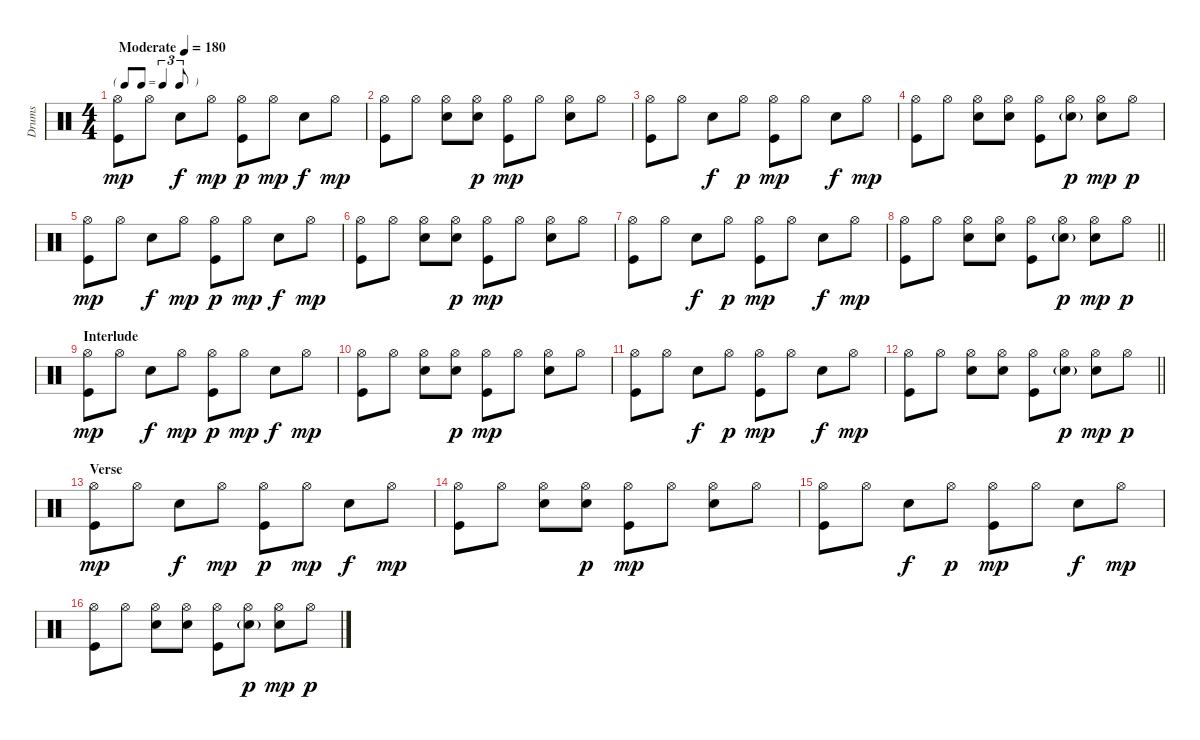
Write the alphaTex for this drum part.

\track ("Drums" "Drums") {instrument percussion}
\staff {score}
\articulation defaults
\ts (4 4)
\tf triplet8th
\tempo (180 "Moderate")
\clef neutral
\ks c
("Hi-Hat (open)" "Kick (hit)").8{dy mp} "Hi-Hat (open)".8 "Electric Snare (hit)".8{dy f} "Hi-Hat (open)".8{dy mp} ("Hi-Hat (open)" "Kick (hit)").8{dy p} "Hi-Hat (open)".8{dy mp} "Electric Snare (hit)".8{dy f} "Hi-Hat (open)".8{dy mp} |
("Hi-Hat (open)" "Kick (hit)").8 "Hi-Hat (open)".8 ("Hi-Hat (open)" "Electric Snare (hit)").8 ("Electric Snare (hit)" "Hi-Hat (open)").8{dy p} ("Hi-Hat (open)" "Kick (hit)").8{dy mp} "Hi-Hat (open)".8 ("Hi-Hat (open)" "Electric Snare (hit)").8 "Hi-Hat (open)".8 |
("Hi-Hat (open)" "Kick (hit)").8 "Hi-Hat (open)".8 "Electric Snare (hit)".8{dy f} "Hi-Hat (open)".8{dy p} ("Hi-Hat (open)" "Kick (hit)").8{dy mp} "Hi-Hat (open)".8 "Electric Snare (hit)".8{dy f} "Hi-Hat (open)".8{dy mp} |
("Hi-Hat (open)" "Kick (hit)").8 "Hi-Hat (open)".8 ("Hi-Hat (open)" "Electric Snare (hit)").8 ("Electric Snare (hit)" "Hi-Hat (open)").8 ("Hi-Hat (open)" "Kick (hit)").8 ("Electric Snare (hit)"{g} "Hi-Hat (open)").8{dy p} ("Hi-Hat (open)" "Electric Snare (hit)").8{dy mp} "Hi-Hat (open)".8{dy p} |
("Hi-Hat (open)" "Kick (hit)").8{dy mp} "Hi-Hat (open)".8 "Electric Snare (hit)".8{dy f} "Hi-Hat (open)".8{dy mp} ("Hi-Hat (open)" "Kick (hit)").8{dy p} "Hi-Hat (open)".8{dy mp} "Electric Snare (hit)".8{dy f} "Hi-Hat (open)".8{dy mp} |
("Hi-Hat (open)" "Kick (hit)").8 "Hi-Hat (open)".8 ("Hi-Hat (open)" "Electric Snare (hit)").8 ("Electric Snare (hit)" "Hi-Hat (open)").8{dy p} ("Hi-Hat (open)" "Kick (hit)").8{dy mp} "Hi-Hat (open)".8 ("Hi-Hat (open)" "Electric Snare (hit)").8 "Hi-Hat (open)".8 |
("Hi-Hat (open)" "Kick (hit)").8 "Hi-Hat (open)".8 "Electric Snare (hit)".8{dy f} "Hi-Hat (open)".8{dy p} ("Hi-Hat (open)" "Kick (hit)").8{dy mp} "Hi-Hat (open)".8 "Electric Snare (hit)".8{dy f} "Hi-Hat (open)".8{dy mp} |
\barLineRight lightlight
("Hi-Hat (open)" "Kick (hit)").8 "Hi-Hat (open)".8 ("Hi-Hat (open)" "Electric Snare (hit)").8 ("Electric Snare (hit)" "Hi-Hat (open)").8 ("Hi-Hat (open)" "Kick (hit)").8 ("Electric Snare (hit)"{g} "Hi-Hat (open)").8{dy p} ("Hi-Hat (open)" "Electric Snare (hit)").8{dy mp} "Hi-Hat (open)".8{dy p} |
\section ("" "Interlude")
("Hi-Hat (open)" "Kick (hit)").8{dy mp} "Hi-Hat (open)".8 "Electric Snare (hit)".8{dy f} "Hi-Hat (open)".8{dy mp} ("Hi-Hat (open)" "Kick (hit)").8{dy p} "Hi-Hat (open)".8{dy mp} "Electric Snare (hit)".8{dy f} "Hi-Hat (open)".8{dy mp} |
("Hi-Hat (open)" "Kick (hit)").8 "Hi-Hat (open)".8 ("Hi-Hat (open)" "Electric Snare (hit)").8 ("Electric Snare (hit)" "Hi-Hat (open)").8{dy p} ("Hi-Hat (open)" "Kick (hit)").8{dy mp} "Hi-Hat (open)".8 ("Hi-Hat (open)" "Electric Snare (hit)").8 "Hi-Hat (open)".8 |
("Hi-Hat (open)" "Kick (hit)").8 "Hi-Hat (open)".8 "Electric Snare (hit)".8{dy f} "Hi-Hat (open)".8{dy p} ("Hi-Hat (open)" "Kick (hit)").8{dy mp} "Hi-Hat (open)".8 "Electric Snare (hit)".8{dy f} "Hi-Hat (open)".8{dy mp} |
\barLineRight lightlight
("Hi-Hat (open)" "Kick (hit)").8 "Hi-Hat (open)".8 ("Hi-Hat (open)" "Electric Snare (hit)").8 ("Electric Snare (hit)" "Hi-Hat (open)").8 ("Hi-Hat (open)" "Kick (hit)").8 ("Electric Snare (hit)"{g} "Hi-Hat (open)").8{dy p} ("Hi-Hat (open)" "Electric Snare (hit)").8{dy mp} "Hi-Hat (open)".8{dy p} |
\section ("" "Verse")
("Hi-Hat (open)" "Kick (hit)").8{dy mp} "Hi-Hat (open)".8 "Electric Snare (hit)".8{dy f} "Hi-Hat (open)".8{dy mp} ("Hi-Hat (open)" "Kick (hit)").8{dy p} "Hi-Hat (open)".8{dy mp} "Electric Snare (hit)".8{dy f} "Hi-Hat (open)".8{dy mp} |
("Hi-Hat (open)" "Kick (hit)").8 "Hi-Hat (open)".8 ("Hi-Hat (open)" "Electric Snare (hit)").8 ("Electric Snare (hit)" "Hi-Hat (open)").8{dy p} ("Hi-Hat (open)" "Kick (hit)").8{dy mp} "Hi-Hat (open)".8 ("Hi-Hat (open)" "Electric Snare (hit)").8 "Hi-Hat (open)".8 |
("Hi-Hat (open)" "Kick (hit)").8 "Hi-Hat (open)".8 "Electric Snare (hit)".8{dy f} "Hi-Hat (open)".8{dy p} ("Hi-Hat (open)" "Kick (hit)").8{dy mp} "Hi-Hat (open)".8 "Electric Snare (hit)".8{dy f} "Hi-Hat (open)".8{dy mp} |
("Hi-Hat (open)" "Kick (hit)").8 "Hi-Hat (open)".8 ("Hi-Hat (open)" "Electric Snare (hit)").8 ("Electric Snare (hit)" "Hi-Hat (open)").8 ("Hi-Hat (open)" "Kick (hit)").8 ("Electric Snare (hit)"{g} "Hi-Hat (open)").8{dy p} ("Hi-Hat (open)" "Electric Snare (hit)").8{dy mp} "Hi-Hat (open)".8{dy p}
